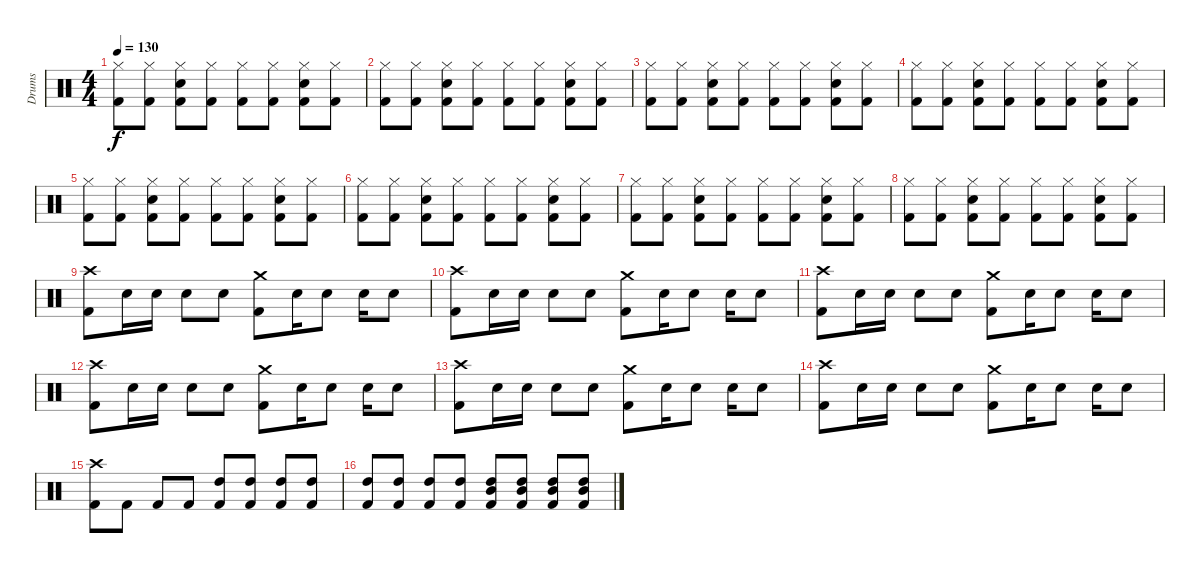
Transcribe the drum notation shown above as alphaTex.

\track ("Drums" "Drums") {instrument percussion}
\staff {score}
\articulation defaults
\ts (4 4)
\tempo 130
\clef neutral
\ks c
("Hi-Hat (closed)" "Kick (hit) 2").8{dy f} ("Hi-Hat (closed)" "Kick (hit) 2").8 ("Hi-Hat (closed)" "Snare (hit) 2" "Kick (hit) 2").8 ("Hi-Hat (closed)" "Kick (hit) 2").8 ("Hi-Hat (closed)" "Kick (hit) 2").8 ("Hi-Hat (closed)" "Kick (hit) 2").8 ("Hi-Hat (closed)" "Snare (hit) 2" "Kick (hit) 2").8 ("Hi-Hat (closed)" "Kick (hit) 2").8 |
("Hi-Hat (closed)" "Kick (hit) 2").8 ("Hi-Hat (closed)" "Kick (hit) 2").8 ("Hi-Hat (closed)" "Snare (hit) 2" "Kick (hit) 2").8 ("Hi-Hat (closed)" "Kick (hit) 2").8 ("Hi-Hat (closed)" "Kick (hit) 2").8 ("Hi-Hat (closed)" "Kick (hit) 2").8 ("Hi-Hat (closed)" "Snare (hit) 2" "Kick (hit) 2").8 ("Hi-Hat (closed)" "Kick (hit) 2").8 |
("Hi-Hat (closed)" "Kick (hit) 2").8 ("Hi-Hat (closed)" "Kick (hit) 2").8 ("Hi-Hat (closed)" "Snare (hit) 2" "Kick (hit) 2").8 ("Hi-Hat (closed)" "Kick (hit) 2").8 ("Hi-Hat (closed)" "Kick (hit) 2").8 ("Hi-Hat (closed)" "Kick (hit) 2").8 ("Hi-Hat (closed)" "Snare (hit) 2" "Kick (hit) 2").8 ("Hi-Hat (closed)" "Kick (hit) 2").8 |
("Hi-Hat (closed)" "Kick (hit) 2").8 ("Hi-Hat (closed)" "Kick (hit) 2").8 ("Hi-Hat (closed)" "Snare (hit) 2" "Kick (hit) 2").8 ("Hi-Hat (closed)" "Kick (hit) 2").8 ("Hi-Hat (closed)" "Kick (hit) 2").8 ("Hi-Hat (closed)" "Kick (hit) 2").8 ("Hi-Hat (closed)" "Snare (hit) 2" "Kick (hit) 2").8 ("Hi-Hat (closed)" "Kick (hit) 2").8 |
("Hi-Hat (closed)" "Kick (hit) 2").8 ("Hi-Hat (closed)" "Kick (hit) 2").8 ("Hi-Hat (closed)" "Snare (hit) 2" "Kick (hit) 2").8 ("Hi-Hat (closed)" "Kick (hit) 2").8 ("Hi-Hat (closed)" "Kick (hit) 2").8 ("Hi-Hat (closed)" "Kick (hit) 2").8 ("Hi-Hat (closed)" "Snare (hit) 2" "Kick (hit) 2").8 ("Hi-Hat (closed)" "Kick (hit) 2").8 |
("Hi-Hat (closed)" "Kick (hit) 2").8 ("Hi-Hat (closed)" "Kick (hit) 2").8 ("Hi-Hat (closed)" "Snare (hit) 2" "Kick (hit) 2").8 ("Hi-Hat (closed)" "Kick (hit) 2").8 ("Hi-Hat (closed)" "Kick (hit) 2").8 ("Hi-Hat (closed)" "Kick (hit) 2").8 ("Hi-Hat (closed)" "Snare (hit) 2" "Kick (hit) 2").8 ("Hi-Hat (closed)" "Kick (hit) 2").8 |
("Hi-Hat (closed)" "Kick (hit) 2").8 ("Hi-Hat (closed)" "Kick (hit) 2").8 ("Hi-Hat (closed)" "Snare (hit) 2" "Kick (hit) 2").8 ("Hi-Hat (closed)" "Kick (hit) 2").8 ("Hi-Hat (closed)" "Kick (hit) 2").8 ("Hi-Hat (closed)" "Kick (hit) 2").8 ("Hi-Hat (closed)" "Snare (hit) 2" "Kick (hit) 2").8 ("Hi-Hat (closed)" "Kick (hit) 2").8 |
("Hi-Hat (closed)" "Kick (hit) 2").8 ("Hi-Hat (closed)" "Kick (hit) 2").8 ("Hi-Hat (closed)" "Snare (hit) 2" "Kick (hit) 2").8 ("Hi-Hat (closed)" "Kick (hit) 2").8 ("Hi-Hat (closed)" "Kick (hit) 2").8 ("Hi-Hat (closed)" "Kick (hit) 2").8 ("Hi-Hat (closed)" "Snare (hit) 2" "Kick (hit) 2").8 ("Hi-Hat (closed)" "Kick (hit) 2").8 |
("Crash high (hit)" "Kick (hit) 2").8 "Snare (hit) 2".16 "Snare (hit) 2".16 "Snare (hit) 2".8 "Snare (hit) 2".8 ("Crash medium (hit)" "Kick (hit) 2").8 "Snare (hit) 2".16 "Snare (hit) 2".8 "Snare (hit) 2".16 "Snare (hit) 2".8 |
("Crash high (hit)" "Kick (hit) 2").8 "Snare (hit) 2".16 "Snare (hit) 2".16 "Snare (hit) 2".8 "Snare (hit) 2".8 ("Crash medium (hit)" "Kick (hit) 2").8 "Snare (hit) 2".16 "Snare (hit) 2".8 "Snare (hit) 2".16 "Snare (hit) 2".8 |
("Crash high (hit)" "Kick (hit) 2").8 "Snare (hit) 2".16 "Snare (hit) 2".16 "Snare (hit) 2".8 "Snare (hit) 2".8 ("Crash medium (hit)" "Kick (hit) 2").8 "Snare (hit) 2".16 "Snare (hit) 2".8 "Snare (hit) 2".16 "Snare (hit) 2".8 |
("Crash high (hit)" "Kick (hit) 2").8 "Snare (hit) 2".16 "Snare (hit) 2".16 "Snare (hit) 2".8 "Snare (hit) 2".8 ("Crash medium (hit)" "Kick (hit) 2").8 "Snare (hit) 2".16 "Snare (hit) 2".8 "Snare (hit) 2".16 "Snare (hit) 2".8 |
("Crash high (hit)" "Kick (hit) 2").8 "Snare (hit) 2".16 "Snare (hit) 2".16 "Snare (hit) 2".8 "Snare (hit) 2".8 ("Crash medium (hit)" "Kick (hit) 2").8 "Snare (hit) 2".16 "Snare (hit) 2".8 "Snare (hit) 2".16 "Snare (hit) 2".8 |
("Crash high (hit)" "Kick (hit) 2").8 "Snare (hit) 2".16 "Snare (hit) 2".16 "Snare (hit) 2".8 "Snare (hit) 2".8 ("Crash medium (hit)" "Kick (hit) 2").8 "Snare (hit) 2".16 "Snare (hit) 2".8 "Snare (hit) 2".16 "Snare (hit) 2".8 |
("Crash high (hit)" "Kick (hit) 2").8 "Kick (hit) 2".8 "Kick (hit) 2".8 "Kick (hit) 2".8 ("High Tom (hit)" "Kick (hit) 2").8 ("High Tom (hit)" "Kick (hit) 2").8 ("High Tom (hit)" "Kick (hit) 2").8 ("High Tom (hit)" "Kick (hit) 2").8 |
("High Tom (hit)" "Kick (hit) 2").8 ("High Tom (hit)" "Kick (hit) 2").8 ("High Tom (hit)" "Kick (hit) 2").8 ("High Tom (hit)" "Kick (hit) 2").8 ("Mid Tom (hit)" "High Tom (hit)" "Kick (hit) 2").8 ("Mid Tom (hit)" "High Tom (hit)" "Kick (hit) 2").8 ("Mid Tom (hit)" "High Tom (hit)" "Kick (hit) 2").8 ("Mid Tom (hit)" "High Tom (hit)" "Kick (hit) 2").8
